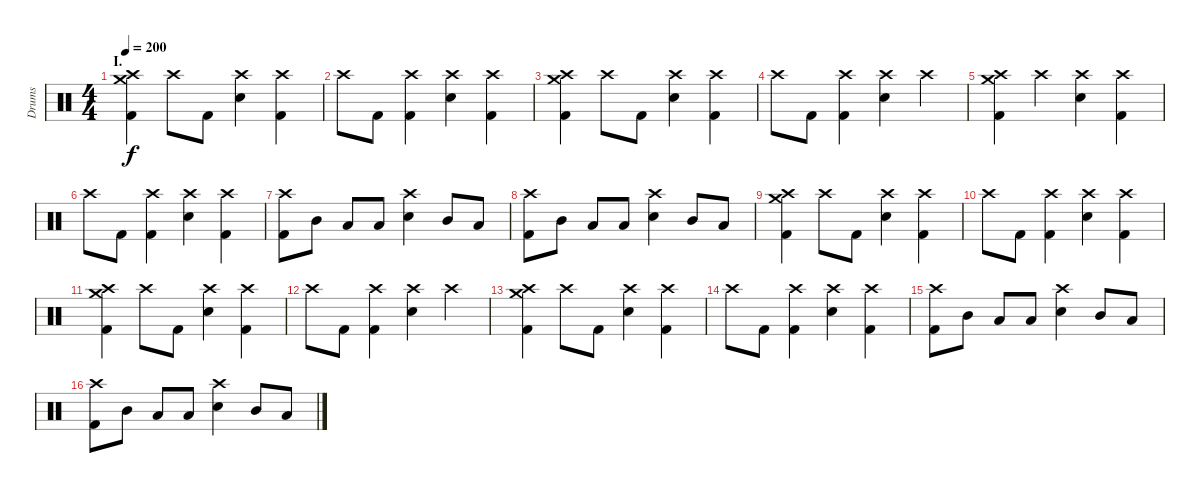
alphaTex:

\track ("Drums" "Drums") {instrument percussion}
\staff {score}
\articulation defaults
\ts (4 4)
\section ("" "I.")
\tempo 200
\clef neutral
\ks c
("Crash medium (hit)" "Crash high (hit)" "Kick (hit) 2").4{dy f} "Crash high (hit)".8 "Kick (hit) 2".8 ("Crash high (hit)" "Electric Snare (hit)").4 ("Crash high (hit)" "Kick (hit) 2").4 |
"Crash high (hit)".8 "Kick (hit) 2".8 ("Crash high (hit)" "Kick (hit) 2").4 ("Crash high (hit)" "Electric Snare (hit)").4 ("Crash high (hit)" "Kick (hit) 2").4 |
("Crash medium (hit)" "Crash high (hit)" "Kick (hit) 2").4 "Crash high (hit)".8 "Kick (hit) 2".8 ("Crash high (hit)" "Electric Snare (hit)").4 ("Crash high (hit)" "Kick (hit) 2").4 |
"Crash high (hit)".8 "Kick (hit) 2".8 ("Crash high (hit)" "Kick (hit) 2").4 ("Crash high (hit)" "Electric Snare (hit)").4 "Crash high (hit)".4 |
("Crash medium (hit)" "Crash high (hit)" "Kick (hit) 2").4 "Crash high (hit)".4 ("Crash high (hit)" "Electric Snare (hit)").4 ("Crash high (hit)" "Kick (hit) 2").4 |
"Crash high (hit)".8 "Kick (hit) 2".8 ("Crash high (hit)" "Kick (hit) 2").4 ("Crash high (hit)" "Electric Snare (hit)").4 ("Crash high (hit)" "Kick (hit) 2").4 |
("Crash high (hit)" "Kick (hit) 2").8 "Mid Tom (hit)".8 "Low Tom (hit)".8 "Low Floor Tom (hit)".8 ("Crash high (hit)" "Electric Snare (hit)").4 "Mid Tom (hit)".8 "Low Tom (hit)".8 |
("Crash high (hit)" "Kick (hit) 2").8 "Mid Tom (hit)".8 "Low Tom (hit)".8 "Low Floor Tom (hit)".8 ("Crash high (hit)" "Electric Snare (hit)").4 "Mid Tom (hit)".8 "Low Tom (hit)".8 |
("Crash medium (hit)" "Crash high (hit)" "Kick (hit) 2").4 "Crash high (hit)".8 "Kick (hit) 2".8 ("Crash high (hit)" "Electric Snare (hit)").4 ("Crash high (hit)" "Kick (hit) 2").4 |
"Crash high (hit)".8 "Kick (hit) 2".8 ("Crash high (hit)" "Kick (hit) 2").4 ("Crash high (hit)" "Electric Snare (hit)").4 ("Crash high (hit)" "Kick (hit) 2").4 |
("Crash medium (hit)" "Crash high (hit)" "Kick (hit) 2").4 "Crash high (hit)".8 "Kick (hit) 2".8 ("Crash high (hit)" "Electric Snare (hit)").4 ("Crash high (hit)" "Kick (hit) 2").4 |
"Crash high (hit)".8 "Kick (hit) 2".8 ("Crash high (hit)" "Kick (hit) 2").4 ("Crash high (hit)" "Electric Snare (hit)").4 "Crash high (hit)".4 |
("Crash medium (hit)" "Crash high (hit)" "Kick (hit) 2").4 "Crash high (hit)".8 "Kick (hit) 2".8 ("Crash high (hit)" "Electric Snare (hit)").4 ("Crash high (hit)" "Kick (hit) 2").4 |
"Crash high (hit)".8 "Kick (hit) 2".8 ("Crash high (hit)" "Kick (hit) 2").4 ("Crash high (hit)" "Electric Snare (hit)").4 ("Crash high (hit)" "Kick (hit) 2").4 |
("Crash high (hit)" "Kick (hit) 2").8 "Mid Tom (hit)".8 "Low Tom (hit)".8 "Low Floor Tom (hit)".8 ("Crash high (hit)" "Electric Snare (hit)").4 "Mid Tom (hit)".8 "Low Tom (hit)".8 |
("Crash high (hit)" "Kick (hit) 2").8 "Mid Tom (hit)".8 "Low Tom (hit)".8 "Low Floor Tom (hit)".8 ("Crash high (hit)" "Electric Snare (hit)").4 "Mid Tom (hit)".8 "Low Tom (hit)".8
